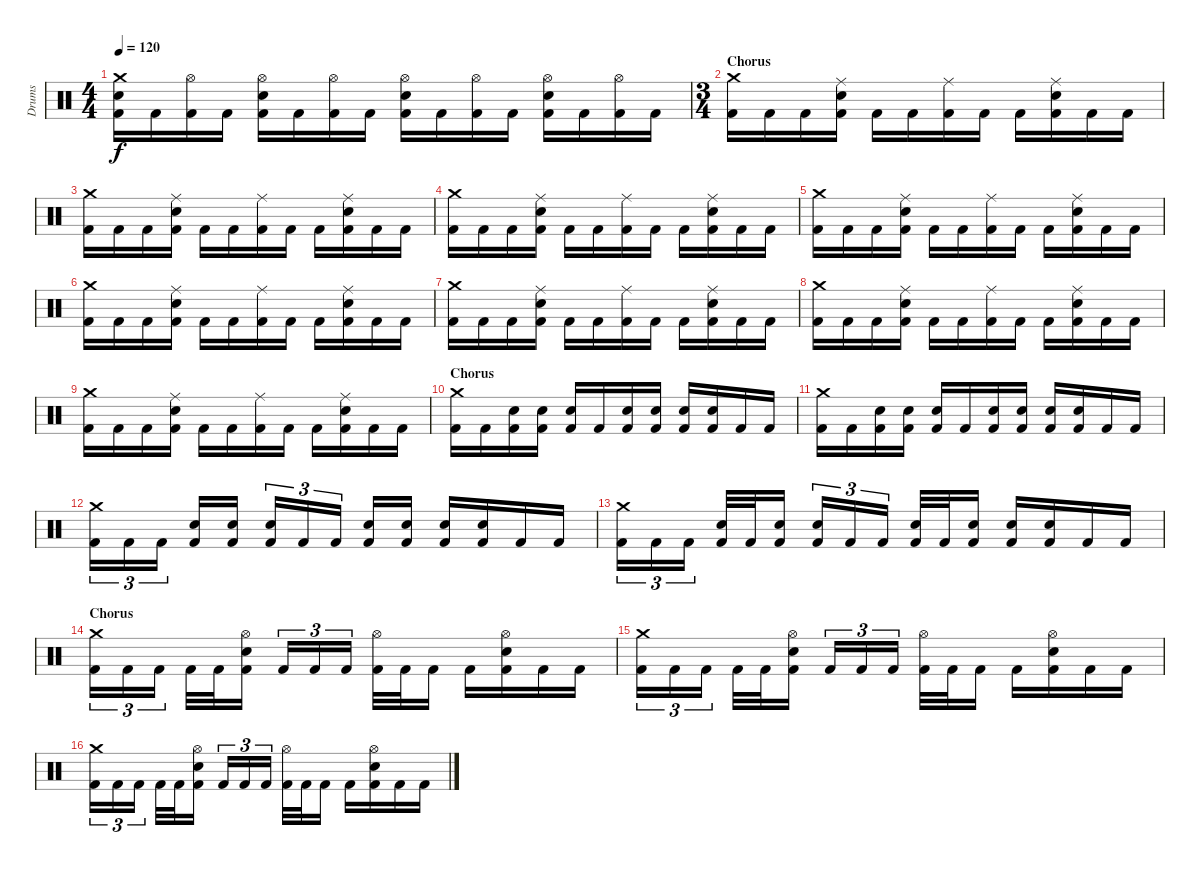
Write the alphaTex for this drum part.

\track ("Drums" "Drums") {instrument percussion}
\staff {score}
\articulation defaults
\ts (4 4)
\tempo 120
\clef neutral
\ks c
("Crash medium (hit)" "Electric Snare (hit)" "Kick (hit) 2").16{dy f} "Kick (hit) 2".16 ("Hi-Hat (open)" "Kick (hit) 2").16 "Kick (hit) 2".16 ("Hi-Hat (open)" "Electric Snare (hit)" "Kick (hit) 2").16 "Kick (hit) 2".16 ("Hi-Hat (open)" "Kick (hit) 2").16 "Kick (hit) 2".16 ("Hi-Hat (open)" "Electric Snare (hit)" "Kick (hit) 2").16 "Kick (hit) 2".16 ("Hi-Hat (open)" "Kick (hit) 2").16 "Kick (hit) 2".16 ("Hi-Hat (open)" "Electric Snare (hit)" "Kick (hit) 2").16 "Kick (hit) 2".16 ("Hi-Hat (open)" "Kick (hit) 2").16 "Kick (hit) 2".16 |
\ts (3 4)
\section ("" "Chorus")
("Crash medium (hit)" "Kick (hit) 2").16 "Kick (hit) 2".16 "Kick (hit) 2".16 ("Ride (middle)" "Electric Snare (hit)" "Kick (hit) 2").16 "Kick (hit) 2".16 "Kick (hit) 2".16 ("Ride (middle)" "Kick (hit) 2").16 "Kick (hit) 2".16 "Kick (hit) 2".16 ("Ride (middle)" "Electric Snare (hit)" "Kick (hit) 2").16 "Kick (hit) 2".16 "Kick (hit) 2".16 |
("Crash medium (hit)" "Kick (hit) 2").16 "Kick (hit) 2".16 "Kick (hit) 2".16 ("Ride (middle)" "Electric Snare (hit)" "Kick (hit) 2").16 "Kick (hit) 2".16 "Kick (hit) 2".16 ("Ride (middle)" "Kick (hit) 2").16 "Kick (hit) 2".16 "Kick (hit) 2".16 ("Ride (middle)" "Electric Snare (hit)" "Kick (hit) 2").16 "Kick (hit) 2".16 "Kick (hit) 2".16 |
("Crash medium (hit)" "Kick (hit) 2").16 "Kick (hit) 2".16 "Kick (hit) 2".16 ("Ride (middle)" "Electric Snare (hit)" "Kick (hit) 2").16 "Kick (hit) 2".16 "Kick (hit) 2".16 ("Ride (middle)" "Kick (hit) 2").16 "Kick (hit) 2".16 "Kick (hit) 2".16 ("Ride (middle)" "Electric Snare (hit)" "Kick (hit) 2").16 "Kick (hit) 2".16 "Kick (hit) 2".16 |
("Crash medium (hit)" "Kick (hit) 2").16 "Kick (hit) 2".16 "Kick (hit) 2".16 ("Ride (middle)" "Electric Snare (hit)" "Kick (hit) 2").16 "Kick (hit) 2".16 "Kick (hit) 2".16 ("Ride (middle)" "Kick (hit) 2").16 "Kick (hit) 2".16 "Kick (hit) 2".16 ("Ride (middle)" "Electric Snare (hit)" "Kick (hit) 2").16 "Kick (hit) 2".16 "Kick (hit) 2".16 |
("Crash medium (hit)" "Kick (hit) 2").16 "Kick (hit) 2".16 "Kick (hit) 2".16 ("Ride (middle)" "Electric Snare (hit)" "Kick (hit) 2").16 "Kick (hit) 2".16 "Kick (hit) 2".16 ("Ride (middle)" "Kick (hit) 2").16 "Kick (hit) 2".16 "Kick (hit) 2".16 ("Ride (middle)" "Electric Snare (hit)" "Kick (hit) 2").16 "Kick (hit) 2".16 "Kick (hit) 2".16 |
("Crash medium (hit)" "Kick (hit) 2").16 "Kick (hit) 2".16 "Kick (hit) 2".16 ("Ride (middle)" "Electric Snare (hit)" "Kick (hit) 2").16 "Kick (hit) 2".16 "Kick (hit) 2".16 ("Ride (middle)" "Kick (hit) 2").16 "Kick (hit) 2".16 "Kick (hit) 2".16 ("Ride (middle)" "Electric Snare (hit)" "Kick (hit) 2").16 "Kick (hit) 2".16 "Kick (hit) 2".16 |
("Crash medium (hit)" "Kick (hit) 2").16 "Kick (hit) 2".16 "Kick (hit) 2".16 ("Ride (middle)" "Electric Snare (hit)" "Kick (hit) 2").16 "Kick (hit) 2".16 "Kick (hit) 2".16 ("Ride (middle)" "Kick (hit) 2").16 "Kick (hit) 2".16 "Kick (hit) 2".16 ("Ride (middle)" "Electric Snare (hit)" "Kick (hit) 2").16 "Kick (hit) 2".16 "Kick (hit) 2".16 |
("Crash medium (hit)" "Kick (hit) 2").16 "Kick (hit) 2".16 "Kick (hit) 2".16 ("Ride (middle)" "Electric Snare (hit)" "Kick (hit) 2").16 "Kick (hit) 2".16 "Kick (hit) 2".16 ("Ride (middle)" "Kick (hit) 2").16 "Kick (hit) 2".16 "Kick (hit) 2".16 ("Ride (middle)" "Electric Snare (hit)" "Kick (hit) 2").16 "Kick (hit) 2".16 "Kick (hit) 2".16 |
\section ("" "Chorus")
("Crash medium (hit)" "Kick (hit) 2").16 "Kick (hit) 2".16 ("Electric Snare (hit)" "Kick (hit) 2").16 ("Electric Snare (hit)" "Kick (hit) 2").16 ("Electric Snare (hit)" "Kick (hit) 2").16 "Kick (hit) 2".16 ("Electric Snare (hit)" "Kick (hit) 2").16 ("Electric Snare (hit)" "Kick (hit) 2").16 ("Electric Snare (hit)" "Kick (hit) 2").16 ("Electric Snare (hit)" "Kick (hit) 2").16 "Kick (hit) 2".16 "Kick (hit) 2".16 |
("Crash medium (hit)" "Kick (hit) 2").16 "Kick (hit) 2".16 ("Electric Snare (hit)" "Kick (hit) 2").16 ("Electric Snare (hit)" "Kick (hit) 2").16 ("Electric Snare (hit)" "Kick (hit) 2").16 "Kick (hit) 2".16 ("Electric Snare (hit)" "Kick (hit) 2").16 ("Electric Snare (hit)" "Kick (hit) 2").16 ("Electric Snare (hit)" "Kick (hit) 2").16 ("Electric Snare (hit)" "Kick (hit) 2").16 "Kick (hit) 2".16 "Kick (hit) 2".16 |
("Crash medium (hit)" "Kick (hit) 2").16{tu (3 2)} "Kick (hit) 2".16{tu (3 2)} "Kick (hit) 2".16{tu (3 2)} ("Electric Snare (hit)" "Kick (hit) 2").16 ("Electric Snare (hit)" "Kick (hit) 2").16 ("Electric Snare (hit)" "Kick (hit) 2").16{tu (3 2)} "Kick (hit) 2".16{tu (3 2)} "Kick (hit) 2".16{tu (3 2)} ("Electric Snare (hit)" "Kick (hit) 2").16 ("Electric Snare (hit)" "Kick (hit) 2").16 ("Electric Snare (hit)" "Kick (hit) 2").16 ("Electric Snare (hit)" "Kick (hit) 2").16 "Kick (hit) 2".16 "Kick (hit) 2".16 |
("Crash medium (hit)" "Kick (hit) 2").16{tu (3 2)} "Kick (hit) 2".16{tu (3 2)} "Kick (hit) 2".16{tu (3 2)} ("Electric Snare (hit)" "Kick (hit) 2").32 "Kick (hit) 2".32 ("Electric Snare (hit)" "Kick (hit) 2").16 ("Electric Snare (hit)" "Kick (hit) 2").16{tu (3 2)} "Kick (hit) 2".16{tu (3 2)} "Kick (hit) 2".16{tu (3 2)} ("Electric Snare (hit)" "Kick (hit) 2").32 "Kick (hit) 2".32 ("Electric Snare (hit)" "Kick (hit) 2").16 ("Electric Snare (hit)" "Kick (hit) 2").16 ("Electric Snare (hit)" "Kick (hit) 2").16 "Kick (hit) 2".16 "Kick (hit) 2".16 |
\section ("" "Chorus")
("Crash medium (hit)" "Kick (hit) 2").16{tu (3 2)} "Kick (hit) 2".16{tu (3 2)} "Kick (hit) 2".16{tu (3 2)} "Kick (hit) 2".32 "Kick (hit) 2".32 ("Hi-Hat (open)" "Electric Snare (hit)" "Kick (hit) 2").16 "Kick (hit) 2".16{tu (3 2)} "Kick (hit) 2".16{tu (3 2)} "Kick (hit) 2".16{tu (3 2)} ("Hi-Hat (open)" "Kick (hit) 2").32 "Kick (hit) 2".32 "Kick (hit) 2".16 "Kick (hit) 2".16 ("Hi-Hat (open)" "Electric Snare (hit)" "Kick (hit) 2").16 "Kick (hit) 2".16 "Kick (hit) 2".16 |
("Crash medium (hit)" "Kick (hit) 2").16{tu (3 2)} "Kick (hit) 2".16{tu (3 2)} "Kick (hit) 2".16{tu (3 2)} "Kick (hit) 2".32 "Kick (hit) 2".32 ("Hi-Hat (open)" "Electric Snare (hit)" "Kick (hit) 2").16 "Kick (hit) 2".16{tu (3 2)} "Kick (hit) 2".16{tu (3 2)} "Kick (hit) 2".16{tu (3 2)} ("Hi-Hat (open)" "Kick (hit) 2").32 "Kick (hit) 2".32 "Kick (hit) 2".16 "Kick (hit) 2".16 ("Hi-Hat (open)" "Electric Snare (hit)" "Kick (hit) 2").16 "Kick (hit) 2".16 "Kick (hit) 2".16 |
("Crash medium (hit)" "Kick (hit) 2").16{tu (3 2)} "Kick (hit) 2".16{tu (3 2)} "Kick (hit) 2".16{tu (3 2)} "Kick (hit) 2".32 "Kick (hit) 2".32 ("Hi-Hat (open)" "Electric Snare (hit)" "Kick (hit) 2").16 "Kick (hit) 2".16{tu (3 2)} "Kick (hit) 2".16{tu (3 2)} "Kick (hit) 2".16{tu (3 2)} ("Hi-Hat (open)" "Kick (hit) 2").32 "Kick (hit) 2".32 "Kick (hit) 2".16 "Kick (hit) 2".16 ("Hi-Hat (open)" "Electric Snare (hit)" "Kick (hit) 2").16 "Kick (hit) 2".16 "Kick (hit) 2".16
